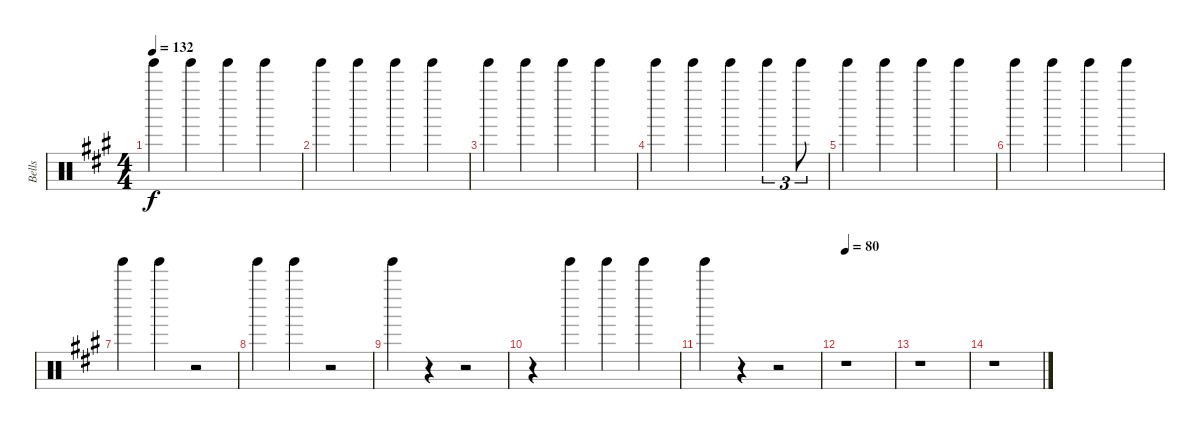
\track ("Bells" "Bells") {instrument percussion}
\staff {score}
\articulation defaults
\ts (4 4)
\tempo 132
\clef neutral
\ks a "Tinkle Bell (hit)".4{dy f} "Tinkle Bell (hit)".4 "Tinkle Bell (hit)".4 "Tinkle Bell (hit)".4
|
"Tinkle Bell (hit)".4 "Tinkle Bell (hit)".4 "Tinkle Bell (hit)".4 "Tinkle Bell (hit)".4 |
"Tinkle Bell (hit)".4 "Tinkle Bell (hit)".4 "Tinkle Bell (hit)".4 "Tinkle Bell (hit)".4 |
"Tinkle Bell (hit)".4 "Tinkle Bell (hit)".4 "Tinkle Bell (hit)".4 "Tinkle Bell (hit)".4{tu (3 2)} "Tinkle Bell (hit)".8{tu (3 2)} |
"Tinkle Bell (hit)".4 "Tinkle Bell (hit)".4 "Tinkle Bell (hit)".4 "Tinkle Bell (hit)".4 |
"Tinkle Bell (hit)".4 "Tinkle Bell (hit)".4 "Tinkle Bell (hit)".4 "Tinkle Bell (hit)".4 |
"Tinkle Bell (hit)".4 "Tinkle Bell (hit)".4 r.2 |
"Tinkle Bell (hit)".4 "Tinkle Bell (hit)".4 r.2 |
"Tinkle Bell (hit)".4 r.4 r.2 |
r.4 "Tinkle Bell (hit)".4 "Tinkle Bell (hit)".4 "Tinkle Bell (hit)".4 |
"Tinkle Bell (hit)".4 r.4 r.2 |
\tempo 80
r.1 |
r.1 |
r.1
